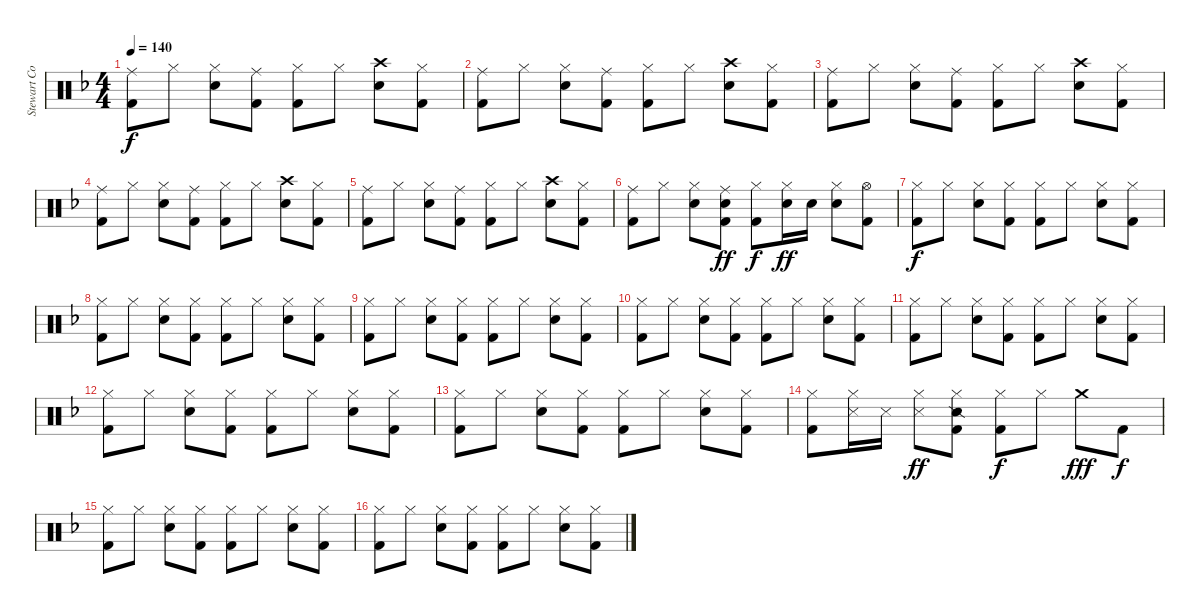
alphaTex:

\track ("Stewart Copeland" "Stewart Co") {instrument percussion}
\staff {score}
\articulation defaults
\ts (4 4)
\tempo 140
\clef neutral
\ks f
("Ride (middle)" "Kick (hit) 2").8{dy f} "Hi-Hat (closed)".8 ("Hi-Hat (closed)" "Snare (hit) 2").8 ("Ride (middle)" "Kick (hit) 2").8 ("Hi-Hat (closed)" "Kick (hit) 2").8 "Hi-Hat (closed)".8 ("Crash high (hit)" "Snare (hit) 2").8 ("Hi-Hat (closed)" "Kick (hit) 2").8 |
("Ride (middle)" "Kick (hit) 2").8 "Hi-Hat (closed)".8 ("Hi-Hat (closed)" "Snare (hit) 2").8 ("Ride (middle)" "Kick (hit) 2").8 ("Hi-Hat (closed)" "Kick (hit) 2").8 "Hi-Hat (closed)".8 ("Crash high (hit)" "Snare (hit) 2").8 ("Hi-Hat (closed)" "Kick (hit) 2").8 |
("Ride (middle)" "Kick (hit) 2").8 "Hi-Hat (closed)".8 ("Hi-Hat (closed)" "Snare (hit) 2").8 ("Ride (middle)" "Kick (hit) 2").8 ("Hi-Hat (closed)" "Kick (hit) 2").8 "Hi-Hat (closed)".8 ("Crash high (hit)" "Snare (hit) 2").8 ("Hi-Hat (closed)" "Kick (hit) 2").8 |
("Ride (middle)" "Kick (hit) 2").8 "Hi-Hat (closed)".8 ("Hi-Hat (closed)" "Snare (hit) 2").8 ("Ride (middle)" "Kick (hit) 2").8 ("Hi-Hat (closed)" "Kick (hit) 2").8 "Hi-Hat (closed)".8 ("Crash high (hit)" "Snare (hit) 2").8 ("Hi-Hat (closed)" "Kick (hit) 2").8 |
("Ride (middle)" "Kick (hit) 2").8 "Hi-Hat (closed)".8 ("Hi-Hat (closed)" "Snare (hit) 2").8 ("Ride (middle)" "Kick (hit) 2").8 ("Hi-Hat (closed)" "Kick (hit) 2").8 "Hi-Hat (closed)".8 ("Crash high (hit)" "Snare (hit) 2").8 ("Hi-Hat (closed)" "Kick (hit) 2").8 |
("Ride (middle)" "Kick (hit) 2").8 "Hi-Hat (closed)".8 ("Hi-Hat (closed)" "Snare (hit) 2").8 ("Ride (middle)" "Snare (hit) 2" "Kick (hit) 2").8{dy ff} ("Hi-Hat (closed)" "Kick (hit) 2").8{dy f} ("Hi-Hat (closed)" "Snare (hit) 2").16{dy ff} "Snare (hit) 2".16 ("Hi-Hat (closed)" "Snare (hit) 2").8 ("Hi-Hat (open)" "Kick (hit) 2").8 |
("Hi-Hat (closed)" "Kick (hit) 2").8{dy f} "Hi-Hat (closed)".8 ("Hi-Hat (closed)" "Snare (hit) 2").8 ("Hi-Hat (closed)" "Kick (hit) 2").8 ("Hi-Hat (closed)" "Kick (hit) 2").8 "Hi-Hat (closed)".8 ("Hi-Hat (closed)" "Snare (hit) 2").8 ("Hi-Hat (closed)" "Kick (hit) 2").8 |
("Hi-Hat (closed)" "Kick (hit) 2").8 "Hi-Hat (closed)".8 ("Hi-Hat (closed)" "Snare (hit) 2").8 ("Hi-Hat (closed)" "Kick (hit) 2").8 ("Hi-Hat (closed)" "Kick (hit) 2").8 "Hi-Hat (closed)".8 ("Hi-Hat (closed)" "Snare (hit) 2").8 ("Hi-Hat (closed)" "Kick (hit) 2").8 |
("Hi-Hat (closed)" "Kick (hit) 2").8 "Hi-Hat (closed)".8 ("Hi-Hat (closed)" "Snare (hit) 2").8 ("Hi-Hat (closed)" "Kick (hit) 2").8 ("Hi-Hat (closed)" "Kick (hit) 2").8 "Hi-Hat (closed)".8 ("Hi-Hat (closed)" "Snare (hit) 2").8 ("Hi-Hat (closed)" "Kick (hit) 2").8 |
("Hi-Hat (closed)" "Kick (hit) 2").8 "Hi-Hat (closed)".8 ("Hi-Hat (closed)" "Snare (hit) 2").8 ("Hi-Hat (closed)" "Kick (hit) 2").8 ("Hi-Hat (closed)" "Kick (hit) 2").8 "Hi-Hat (closed)".8 ("Hi-Hat (closed)" "Snare (hit) 2").8 ("Hi-Hat (closed)" "Kick (hit) 2").8 |
("Hi-Hat (closed)" "Kick (hit) 2").8 "Hi-Hat (closed)".8 ("Hi-Hat (closed)" "Snare (hit) 2").8 ("Hi-Hat (closed)" "Kick (hit) 2").8 ("Hi-Hat (closed)" "Kick (hit) 2").8 "Hi-Hat (closed)".8 ("Hi-Hat (closed)" "Snare (hit) 2").8 ("Hi-Hat (closed)" "Kick (hit) 2").8 |
("Hi-Hat (closed)" "Kick (hit) 2").8 "Hi-Hat (closed)".8 ("Hi-Hat (closed)" "Snare (hit) 2").8 ("Hi-Hat (closed)" "Kick (hit) 2").8 ("Hi-Hat (closed)" "Kick (hit) 2").8 "Hi-Hat (closed)".8 ("Hi-Hat (closed)" "Snare (hit) 2").8 ("Hi-Hat (closed)" "Kick (hit) 2").8 |
("Hi-Hat (closed)" "Kick (hit) 2").8 "Hi-Hat (closed)".8 ("Hi-Hat (closed)" "Snare (hit) 2").8 ("Hi-Hat (closed)" "Kick (hit) 2").8 ("Hi-Hat (closed)" "Kick (hit) 2").8 "Hi-Hat (closed)".8 ("Hi-Hat (closed)" "Snare (hit) 2").8 ("Hi-Hat (closed)" "Kick (hit) 2").8 |
("Hi-Hat (closed)" "Kick (hit) 2").8 ("Hi-Hat (closed)" "Snare (side stick) 3").16 "Snare (side stick) 3".16 ("Hi-Hat (closed)" "Snare (side stick) 3").8{dy ff} ("Hi-Hat (closed)" "Snare (side stick) 2" "Kick (hit) 2").8 ("Hi-Hat (closed)" "Kick (hit) 2").8{dy f} "Hi-Hat (closed)".8 "Crash medium (hit)".8{dy fff} "Kick (hit) 2".8{dy f} |
("Hi-Hat (closed)" "Kick (hit) 2").8 "Hi-Hat (closed)".8 ("Hi-Hat (closed)" "Snare (hit) 2").8 ("Hi-Hat (closed)" "Kick (hit) 2").8 ("Hi-Hat (closed)" "Kick (hit) 2").8 "Hi-Hat (closed)".8 ("Hi-Hat (closed)" "Snare (hit) 2").8 ("Hi-Hat (closed)" "Kick (hit) 2").8 |
("Hi-Hat (closed)" "Kick (hit) 2").8 "Hi-Hat (closed)".8 ("Hi-Hat (closed)" "Snare (hit) 2").8 ("Hi-Hat (closed)" "Kick (hit) 2").8 ("Hi-Hat (closed)" "Kick (hit) 2").8 "Hi-Hat (closed)".8 ("Hi-Hat (closed)" "Snare (hit) 2").8 ("Hi-Hat (closed)" "Kick (hit) 2").8
